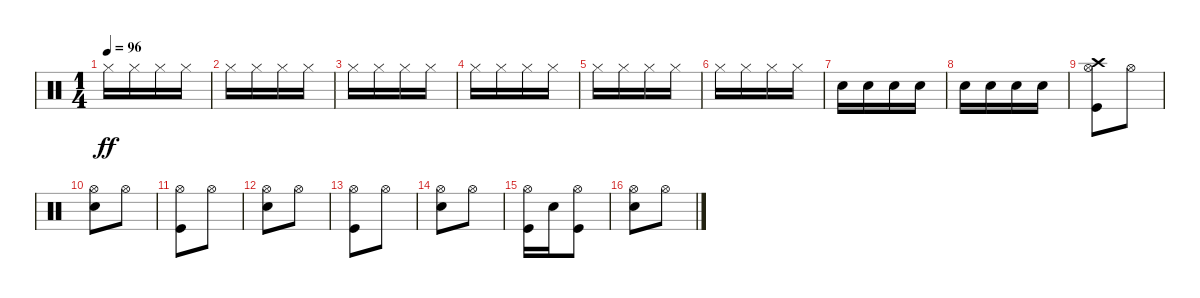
\track "" {instrument percussion}
\staff {score}
\articulation defaults
\ts (1 4)
\tempo 96
\clef neutral
\ks c "Hi-Hat (closed)".16{dy ff} "Hi-Hat (closed)".16 "Hi-Hat (closed)".16 "Hi-Hat (closed)".16
|
"Hi-Hat (closed)".16 "Hi-Hat (closed)".16 "Hi-Hat (closed)".16 "Hi-Hat (closed)".16 |
"Hi-Hat (closed)".16 "Hi-Hat (closed)".16 "Hi-Hat (closed)".16 "Hi-Hat (closed)".16 |
"Hi-Hat (closed)".16 "Hi-Hat (closed)".16 "Hi-Hat (closed)".16 "Hi-Hat (closed)".16 |
"Hi-Hat (closed)".16 "Hi-Hat (closed)".16 "Hi-Hat (closed)".16 "Hi-Hat (closed)".16 |
"Hi-Hat (closed)".16 "Hi-Hat (closed)".16 "Hi-Hat (closed)".16 "Hi-Hat (closed)".16 |
"Snare (hit) 2".16 "Snare (hit) 2".16 "Snare (hit) 2".16 "Snare (hit) 2".16 |
"Snare (hit) 2".16 "Snare (hit) 2".16 "Snare (hit) 2".16 "Snare (hit) 2".16 |
("Kick (hit)" "Hi-Hat (open)" "Crash high (hit)").8 "Hi-Hat (open)".8 |
("Snare (hit) 2" "Hi-Hat (open)").8 "Hi-Hat (open)".8 |
("Kick (hit)" "Hi-Hat (open)").8 "Hi-Hat (open)".8 |
("Snare (hit) 2" "Hi-Hat (open)").8 "Hi-Hat (open)".8 |
("Kick (hit)" "Hi-Hat (open)").8 "Hi-Hat (open)".8 |
("Snare (hit) 2" "Hi-Hat (open)").8 "Hi-Hat (open)".8 |
("Kick (hit)" "Hi-Hat (open)").16 "Snare (hit) 2".16 ("Kick (hit)" "Hi-Hat (open)").8 |
("Snare (hit) 2" "Hi-Hat (open)").8 "Hi-Hat (open)".8
